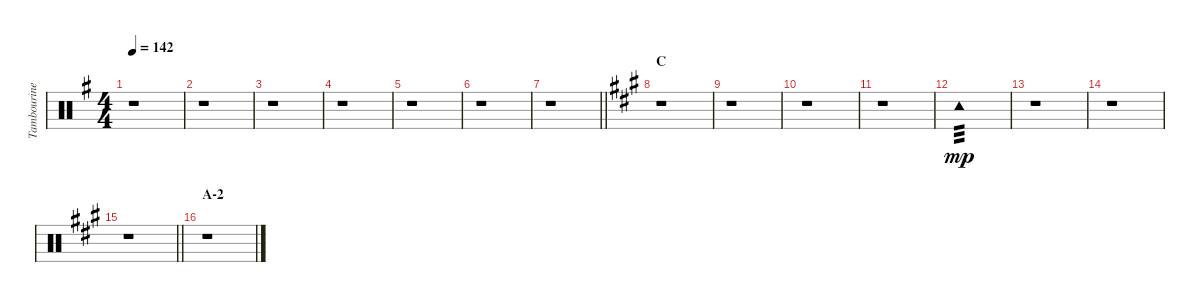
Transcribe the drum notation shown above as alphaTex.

\track ("Tambourine" "Tambourine") {instrument percussion}
\staff {score}
\articulation defaults
\ts (4 4)
\tempo 142
\clef neutral
\ks g
r.1{dy mp} |
r.1 |
r.1 |
r.1 |
r.1 |
r.1 |
\barLineRight lightlight
r.1 |
\section ("" "C")
\ks a
r.1 |
r.1 |
r.1 |
r.1 |
"Tambourine (hit)".1{tp 3} |
r.1 |
r.1 |
\barLineRight lightlight
r.1 |
\section ("" "A-2")
r.1
